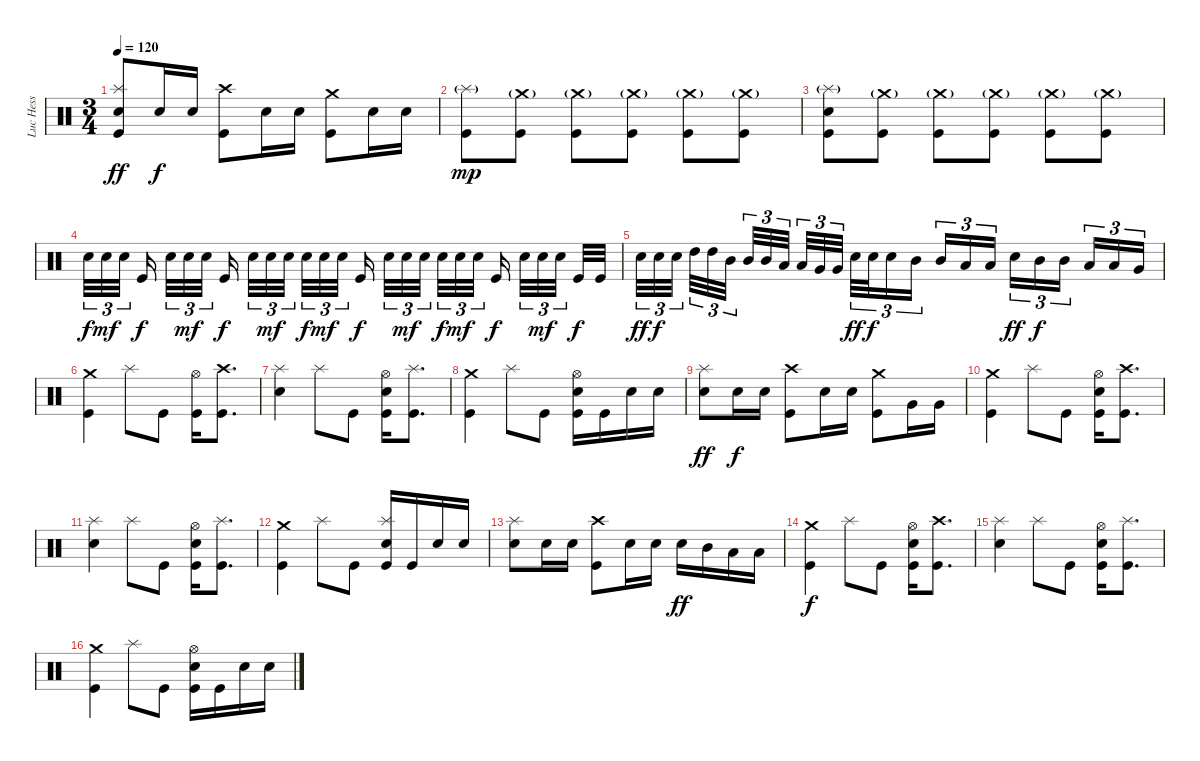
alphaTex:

\track ("Luc Hess" "Luc Hess") {instrument percussion}
\staff {score}
\articulation defaults
\ts (3 4)
\tempo 120
\clef neutral
\ks c
("Snare (hit) 2" "Splash (hit)" "Kick (hit)").8{dy ff} "Snare (hit) 2".16{dy f} "Snare (hit) 2".16 ("Crash high (hit)" "Kick (hit)").8 "Snare (hit) 2".16 "Snare (hit) 2".16 ("Crash medium (hit)" "Kick (hit)").8 "Snare (hit) 2".16 "Snare (hit) 2".16 |
("Splash (hit)"{g} "Kick (hit)").8{dy mp} ("Crash medium (hit)"{g} "Kick (hit)").8 ("Crash medium (hit)"{g} "Kick (hit)").8 ("Crash medium (hit)"{g} "Kick (hit)").8 ("Crash medium (hit)"{g} "Kick (hit)").8 ("Crash medium (hit)"{g} "Kick (hit)").8 |
("Snare (hit) 2" "Splash (hit)"{g} "Kick (hit)").8 ("Crash medium (hit)"{g} "Kick (hit)").8 ("Crash medium (hit)"{g} "Kick (hit)").8 ("Crash medium (hit)"{g} "Kick (hit)").8 ("Crash medium (hit)"{g} "Kick (hit)").8 ("Crash medium (hit)"{g} "Kick (hit)").8 |
"Snare (hit) 2".32{tu (3 2) dy f} "Snare (hit) 2".32{tu (3 2) dy mf} "Snare (hit) 2".32{tu (3 2) beam splitsecondary} "Kick (hit)".16{dy f beam splitsecondary} "Snare (hit) 2".32{tu (3 2)} "Snare (hit) 2".32{tu (3 2) dy mf} "Snare (hit) 2".32{tu (3 2) beam splitsecondary} "Kick (hit)".16{dy f} "Snare (hit) 2".32{tu (3 2)} "Snare (hit) 2".32{tu (3 2) dy mf} "Snare (hit) 2".32{tu (3 2) beam splitsecondary} "Snare (hit) 2".32{tu (3 2) dy f} "Snare (hit) 2".32{tu (3 2) dy mf} "Snare (hit) 2".32{tu (3 2) beam splitsecondary} "Kick (hit)".16{dy f beam splitsecondary} "Snare (hit) 2".32{tu (3 2)} "Snare (hit) 2".32{tu (3 2) dy mf} "Snare (hit) 2".32{tu (3 2)} "Snare (hit) 2".32{tu (3 2) dy f} "Snare (hit) 2".32{tu (3 2) dy mf} "Snare (hit) 2".32{tu (3 2) beam splitsecondary} "Kick (hit)".16{dy f beam splitsecondary} "Snare (hit) 2".32{tu (3 2)} "Snare (hit) 2".32{tu (3 2) dy mf} "Snare (hit) 2".32{tu (3 2) beam splitsecondary} "Kick (hit)".32{dy f} "Kick (hit)".32 |
"Snare (hit) 2".32{tu (3 2) dy ff} "Snare (hit) 2".32{tu (3 2) dy f} "Snare (hit) 2".32{tu (3 2) beam splitsecondary} "High Tom (hit)".32{tu (3 2)} "High Tom (hit)".32{tu (3 2)} "Mid Tom (hit)".32{tu (3 2) beam splitsecondary} "Mid Tom (hit)".32{tu (3 2)} "Mid Tom (hit)".32{tu (3 2)} "Low Tom (hit)".32{tu (3 2) beam splitsecondary} "Low Tom (hit)".32{tu (3 2)} "Very Low Tom (hit)".32{tu (3 2)} "Very Low Tom (hit)".32{tu (3 2)} "Snare (hit) 2".32{tu (3 2) dy ff} "Snare (hit) 2".32{tu (3 2) dy f} "Snare (hit) 2".16{tu (3 2)} "Mid Tom (hit)".16{tu (3 2) beam splitsecondary} "Mid Tom (hit)".16{tu (3 2)} "Low Tom (hit)".16{tu (3 2)} "Low Tom (hit)".16{tu (3 2)} "Snare (hit) 2".16{tu (3 2) dy ff} "Mid Tom (hit)".16{tu (3 2) dy f} "Mid Tom (hit)".16{tu (3 2) beam splitsecondary} "Low Tom (hit)".16{tu (3 2)} "Low Tom (hit)".16{tu (3 2)} "Very Low Tom (hit)".16{tu (3 2)} |
("Crash medium (hit)" "Kick (hit)").4 "Splash (hit)".8 "Kick (hit)".8 ("Hi-Hat (open)" "Kick (hit)").16 ("Crash high (hit)" "Kick (hit)").8{d} |
("Snare (hit) 2" "Splash (hit)").4 "Splash (hit)".8 "Kick (hit)".8 ("Snare (hit) 2" "Hi-Hat (open)" "Kick (hit)").16 ("Splash (hit)" "Kick (hit)").8{d} |
("Crash medium (hit)" "Kick (hit)").4 "Splash (hit)".8 "Kick (hit)".8 ("Snare (hit) 2" "Hi-Hat (open)" "Kick (hit)").16 "Kick (hit)".16 "Snare (hit) 2".16 "Snare (hit) 2".16 |
("Snare (hit) 2" "Splash (hit)").8{dy ff} "Snare (hit) 2".16{dy f} "Snare (hit) 2".16 ("Crash high (hit)" "Kick (hit)").8 "Snare (hit) 2".16 "Snare (hit) 2".16 ("Crash medium (hit)" "Kick (hit)").8 "Very Low Tom (hit)".16 "Very Low Tom (hit)".16 |
("Crash medium (hit)" "Kick (hit)").4 "Splash (hit)".8 "Kick (hit)".8 ("Snare (hit) 2" "Hi-Hat (open)" "Kick (hit)").16 ("Crash high (hit)" "Kick (hit)").8{d} |
("Snare (hit) 2" "Splash (hit)").4 "Splash (hit)".8 "Kick (hit)".8 ("Snare (hit) 2" "Hi-Hat (open)" "Kick (hit)").16 ("Splash (hit)" "Kick (hit)").8{d} |
("Crash medium (hit)" "Kick (hit)").4 "Splash (hit)".8 "Kick (hit)".8 ("Snare (hit) 2" "Splash (hit)" "Kick (hit)").16 "Kick (hit)".16 "Snare (hit) 2".16 "Snare (hit) 2".16 |
("Snare (hit) 2" "Splash (hit)").8 "Snare (hit) 2".16 "Snare (hit) 2".16 ("Crash high (hit)" "Kick (hit)").8 "Snare (hit) 2".16 "Snare (hit) 2".16 "Snare (hit) 2".16{dy ff} "Mid Tom (hit)".16 "Low Tom (hit)".16 "Low Tom (hit)".16 |
("Crash medium (hit)" "Kick (hit)").4{dy f} "Splash (hit)".8 "Kick (hit)".8 ("Snare (hit) 2" "Hi-Hat (open)" "Kick (hit)").16 ("Crash high (hit)" "Kick (hit)").8{d} |
("Snare (hit) 2" "Splash (hit)").4 "Splash (hit)".8 "Kick (hit)".8 ("Snare (hit) 2" "Hi-Hat (open)" "Kick (hit)").16 ("Splash (hit)" "Kick (hit)").8{d} |
("Crash medium (hit)" "Kick (hit)").4 "Splash (hit)".8 "Kick (hit)".8 ("Snare (hit) 2" "Hi-Hat (open)" "Kick (hit)").16 "Kick (hit)".16 "Snare (hit) 2".16 "Snare (hit) 2".16
